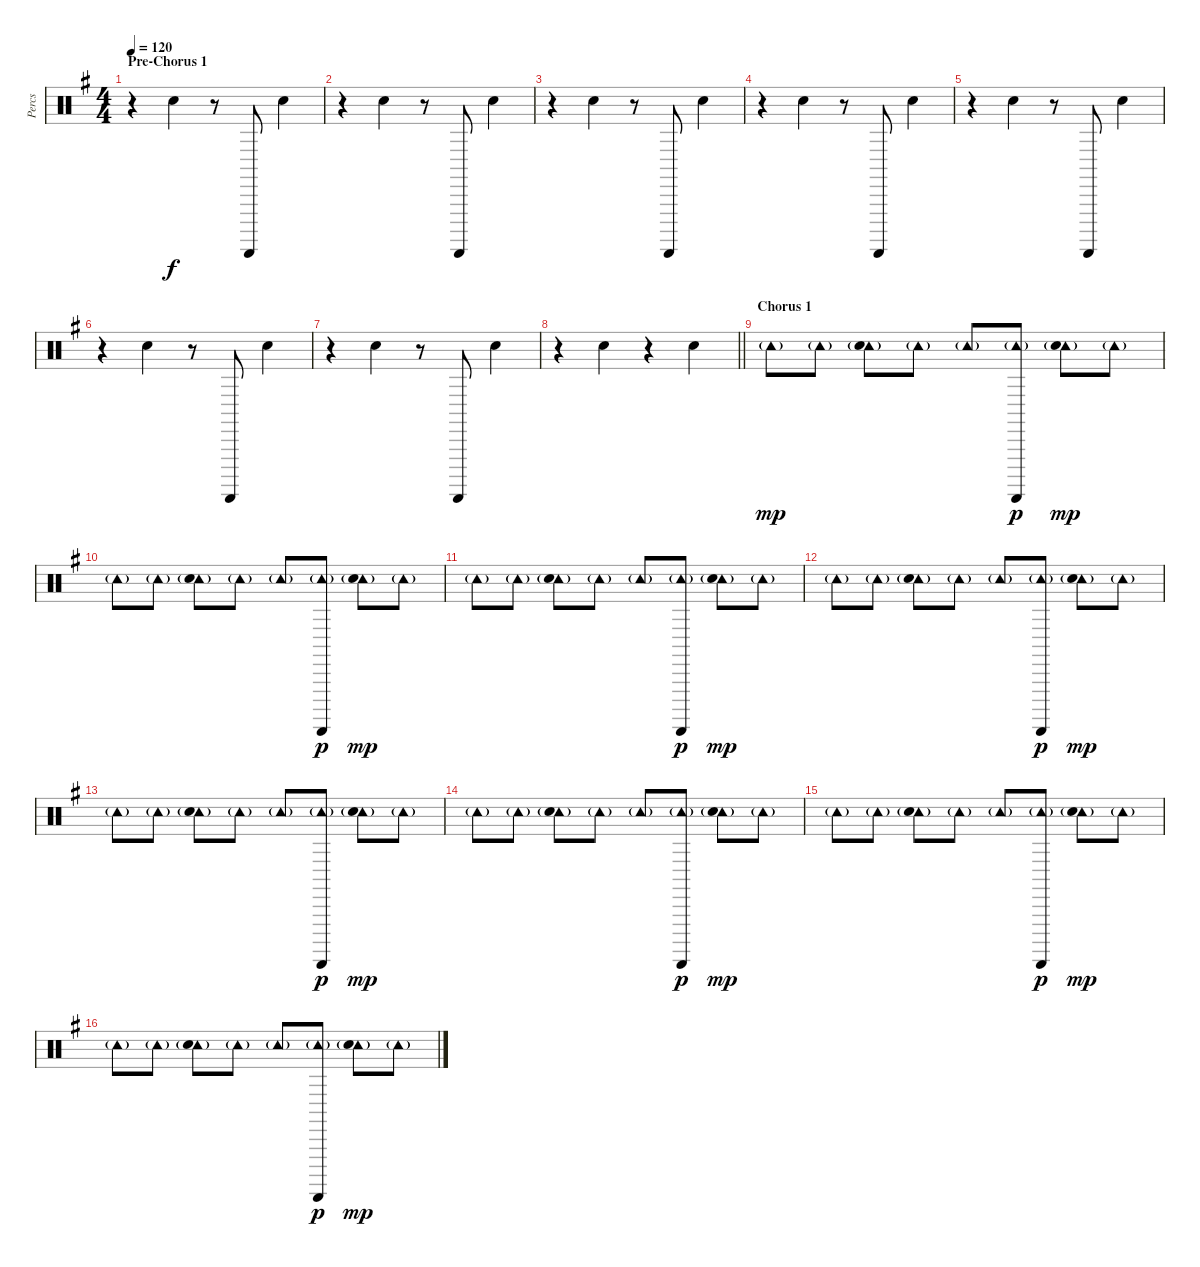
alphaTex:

\track ("Percs" "Percs") {instrument percussion}
\staff {score}
\articulation defaults
\ts (4 4)
\section ("" "Pre-Chorus 1")
\tempo 120
\clef neutral
\ks g
r.4{dy f} "Hand Clap (hit)".4 r.8 "Guiro (scrap-return)".8 "Hand Clap (hit)".4 |
r.4 "Hand Clap (hit)".4 r.8 "Guiro (scrap-return)".8 "Hand Clap (hit)".4 |
r.4 "Hand Clap (hit)".4 r.8 "Guiro (scrap-return)".8 "Hand Clap (hit)".4 |
r.4 "Hand Clap (hit)".4 r.8 "Guiro (scrap-return)".8 "Hand Clap (hit)".4 |
r.4 "Hand Clap (hit)".4 r.8 "Guiro (scrap-return)".8 "Hand Clap (hit)".4 |
r.4 "Hand Clap (hit)".4 r.8 "Guiro (scrap-return)".8 "Hand Clap (hit)".4 |
r.4 "Hand Clap (hit)".4 r.8 "Guiro (scrap-return)".8 "Hand Clap (hit)".4 |
\barLineRight lightlight
r.4 "Hand Clap (hit)".4 r.4 "Hand Clap (hit)".4 |
\section ("" "Chorus 1")
"Tambourine (hit)"{g}.8{dy mp} "Tambourine (hit)"{g}.8 ("Tambourine (hit)"{g} "Hand Clap (hit)").8 "Tambourine (hit)"{g}.8 "Tambourine (hit)"{g}.8 ("Tambourine (hit)"{g} "Guiro (scrap-return)").8{dy p} ("Tambourine (hit)"{g} "Hand Clap (hit)").8{dy mp} "Tambourine (hit)"{g}.8 |
"Tambourine (hit)"{g}.8 "Tambourine (hit)"{g}.8 ("Tambourine (hit)"{g} "Hand Clap (hit)").8 "Tambourine (hit)"{g}.8 "Tambourine (hit)"{g}.8 ("Tambourine (hit)"{g} "Guiro (scrap-return)").8{dy p} ("Tambourine (hit)"{g} "Hand Clap (hit)").8{dy mp} "Tambourine (hit)"{g}.8 |
"Tambourine (hit)"{g}.8 "Tambourine (hit)"{g}.8 ("Tambourine (hit)"{g} "Hand Clap (hit)").8 "Tambourine (hit)"{g}.8 "Tambourine (hit)"{g}.8 ("Tambourine (hit)"{g} "Guiro (scrap-return)").8{dy p} ("Tambourine (hit)"{g} "Hand Clap (hit)").8{dy mp} "Tambourine (hit)"{g}.8 |
"Tambourine (hit)"{g}.8 "Tambourine (hit)"{g}.8 ("Tambourine (hit)"{g} "Hand Clap (hit)").8 "Tambourine (hit)"{g}.8 "Tambourine (hit)"{g}.8 ("Tambourine (hit)"{g} "Guiro (scrap-return)").8{dy p} ("Tambourine (hit)"{g} "Hand Clap (hit)").8{dy mp} "Tambourine (hit)"{g}.8 |
"Tambourine (hit)"{g}.8 "Tambourine (hit)"{g}.8 ("Tambourine (hit)"{g} "Hand Clap (hit)").8 "Tambourine (hit)"{g}.8 "Tambourine (hit)"{g}.8 ("Tambourine (hit)"{g} "Guiro (scrap-return)").8{dy p} ("Tambourine (hit)"{g} "Hand Clap (hit)").8{dy mp} "Tambourine (hit)"{g}.8 |
"Tambourine (hit)"{g}.8 "Tambourine (hit)"{g}.8 ("Tambourine (hit)"{g} "Hand Clap (hit)").8 "Tambourine (hit)"{g}.8 "Tambourine (hit)"{g}.8 ("Tambourine (hit)"{g} "Guiro (scrap-return)").8{dy p} ("Tambourine (hit)"{g} "Hand Clap (hit)").8{dy mp} "Tambourine (hit)"{g}.8 |
"Tambourine (hit)"{g}.8 "Tambourine (hit)"{g}.8 ("Tambourine (hit)"{g} "Hand Clap (hit)").8 "Tambourine (hit)"{g}.8 "Tambourine (hit)"{g}.8 ("Tambourine (hit)"{g} "Guiro (scrap-return)").8{dy p} ("Tambourine (hit)"{g} "Hand Clap (hit)").8{dy mp} "Tambourine (hit)"{g}.8 |
"Tambourine (hit)"{g}.8 "Tambourine (hit)"{g}.8 ("Tambourine (hit)"{g} "Hand Clap (hit)").8 "Tambourine (hit)"{g}.8 "Tambourine (hit)"{g}.8 ("Tambourine (hit)"{g} "Guiro (scrap-return)").8{dy p} ("Tambourine (hit)"{g} "Hand Clap (hit)").8{dy mp} "Tambourine (hit)"{g}.8
